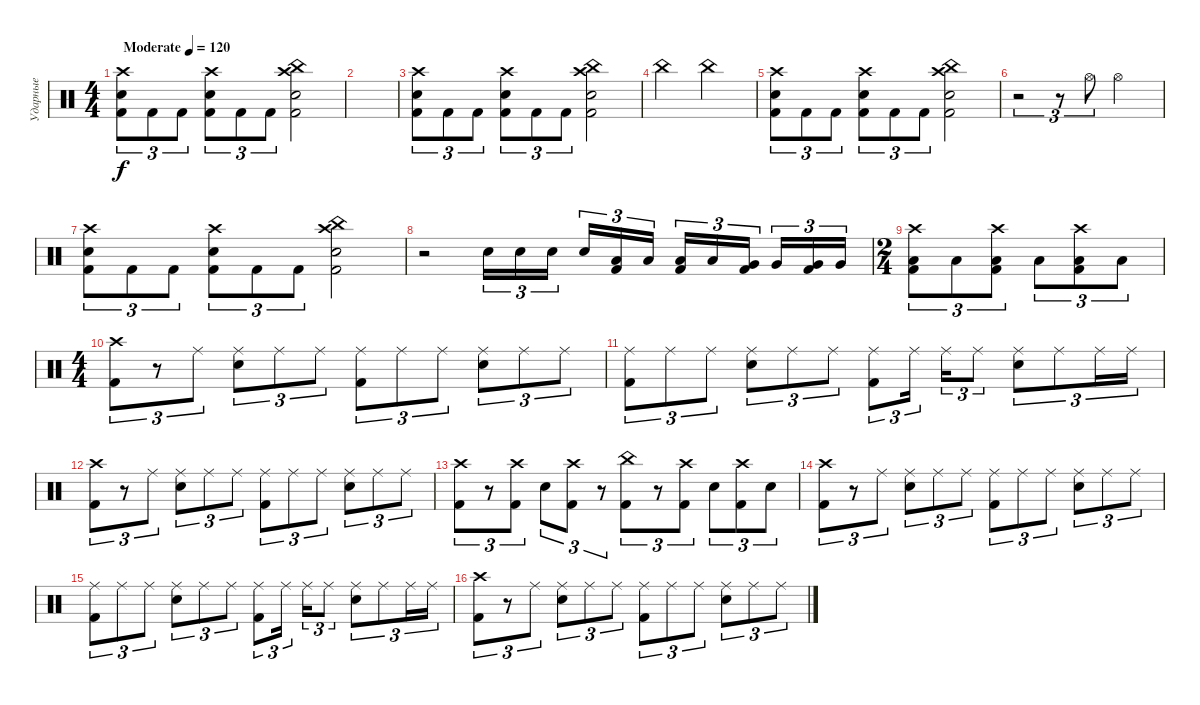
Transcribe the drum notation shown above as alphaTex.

\track ("Ударные" "Ударные") {instrument percussion}
\staff {score}
\articulation defaults
\ts (4 4)
\tempo (120 "Moderate")
\clef neutral
\ks c
("Crash high (hit)" "Snare (hit) 2" "Kick (hit) 2").8{tu (3 2) dy f} "Kick (hit) 2".8{tu (3 2)} "Kick (hit) 2".8{tu (3 2)} ("Crash high (hit)" "Snare (hit) 2" "Kick (hit) 2").8{tu (3 2)} "Kick (hit) 2".8{tu (3 2)} "Kick (hit) 2".8{tu (3 2)} ("Crash high (hit)" "China (hit)" "Snare (hit) 2" "Kick (hit) 2").2 |
|
("Crash high (hit)" "Snare (hit) 2" "Kick (hit) 2").8{tu (3 2)} "Kick (hit) 2".8{tu (3 2)} "Kick (hit) 2".8{tu (3 2)} ("Crash high (hit)" "Snare (hit) 2" "Kick (hit) 2").8{tu (3 2)} "Kick (hit) 2".8{tu (3 2)} "Kick (hit) 2".8{tu (3 2)} ("Crash high (hit)" "China (hit)" "Snare (hit) 2" "Kick (hit) 2").2 |
"China (hit)".2 "China (hit)".2 |
("Crash high (hit)" "Snare (hit) 2" "Kick (hit) 2").8{tu (3 2)} "Kick (hit) 2".8{tu (3 2)} "Kick (hit) 2".8{tu (3 2)} ("Crash high (hit)" "Snare (hit) 2" "Kick (hit) 2").8{tu (3 2)} "Kick (hit) 2".8{tu (3 2)} "Kick (hit) 2".8{tu (3 2)} ("Crash high (hit)" "China (hit)" "Snare (hit) 2" "Kick (hit) 2").2 |
r.2{tu (3 2)} r.8{tu (3 2)} "Hi-Hat (open)".8{tu (3 2)} "Hi-Hat (open)".2 |
("Crash high (hit)" "Snare (hit) 2" "Kick (hit) 2").8{tu (3 2)} "Kick (hit) 2".8{tu (3 2)} "Kick (hit) 2".8{tu (3 2)} ("Crash high (hit)" "Snare (hit) 2" "Kick (hit) 2").8{tu (3 2)} "Kick (hit) 2".8{tu (3 2)} "Kick (hit) 2".8{tu (3 2)} ("Crash high (hit)" "China (hit)" "Snare (hit) 2" "Kick (hit) 2").2 |
r.2 "Snare (hit) 2".16{tu (3 2)} "Snare (hit) 2".16{tu (3 2)} "Snare (hit) 2".16{tu (3 2) beam splitsecondary} "Snare (hit) 2".16{tu (3 2)} ("Low Tom (hit)" "Kick (hit) 2").16{tu (3 2)} "Low Tom (hit)".16{tu (3 2)} ("Low Tom (hit)" "Kick (hit) 2").16{tu (3 2)} "Low Tom (hit)".16{tu (3 2)} ("Very Low Tom (hit)" "Kick (hit) 2").16{tu (3 2) beam splitsecondary} "Very Low Tom (hit)".16{tu (3 2)} ("Very Low Tom (hit)" "Kick (hit) 2").16{tu (3 2)} "Very Low Tom (hit)".16{tu (3 2)} |
\ts (2 4)
("Crash high (hit)" "Low Floor Tom (hit)" "Kick (hit) 2").8{tu (3 2)} "Low Floor Tom (hit)".8{tu (3 2)} ("Crash high (hit)" "Low Floor Tom (hit)" "Kick (hit) 2").8{tu (3 2)} "Low Floor Tom (hit)".8{tu (3 2)} ("Crash high (hit)" "Low Floor Tom (hit)" "Kick (hit) 2").8{tu (3 2)} "Low Floor Tom (hit)".8{tu (3 2)} |
\ts (4 4)
("Crash high (hit)" "Kick (hit) 2").8{tu (3 2)} r.8{tu (3 2)} "Ride (middle)".8{tu (3 2)} ("Ride (middle)" "Snare (hit) 2").8{tu (3 2)} "Ride (middle)".8{tu (3 2)} "Ride (middle)".8{tu (3 2)} ("Ride (middle)" "Kick (hit) 2").8{tu (3 2)} "Ride (middle)".8{tu (3 2)} "Ride (middle)".8{tu (3 2)} ("Ride (middle)" "Snare (hit) 2").8{tu (3 2)} "Ride (middle)".8{tu (3 2)} "Ride (middle)".8{tu (3 2)} |
("Ride (middle)" "Kick (hit) 2").8{tu (3 2)} "Ride (middle)".8{tu (3 2)} "Ride (middle)".8{tu (3 2)} ("Ride (middle)" "Snare (hit) 2").8{tu (3 2)} "Ride (middle)".8{tu (3 2)} "Ride (middle)".8{tu (3 2)} ("Ride (middle)" "Kick (hit) 2").8{tu (3 2)} "Ride (middle)".16{tu (3 2) beam splitsecondary} "Ride (middle)".16{tu (3 2)} "Ride (middle)".8{tu (3 2)} ("Ride (middle)" "Snare (hit) 2").8{tu (3 2)} "Ride (middle)".8{tu (3 2)} "Ride (middle)".16{tu (3 2)} "Ride (middle)".16{tu (3 2)} |
("Crash high (hit)" "Kick (hit) 2").8{tu (3 2)} r.8{tu (3 2)} "Ride (middle)".8{tu (3 2)} ("Ride (middle)" "Snare (hit) 2").8{tu (3 2)} "Ride (middle)".8{tu (3 2)} "Ride (middle)".8{tu (3 2)} ("Ride (middle)" "Kick (hit) 2").8{tu (3 2)} "Ride (middle)".8{tu (3 2)} "Ride (middle)".8{tu (3 2)} ("Ride (middle)" "Snare (hit) 2").8{tu (3 2)} "Ride (middle)".8{tu (3 2)} "Ride (middle)".8{tu (3 2)} |
("Crash high (hit)" "Kick (hit) 2").8{tu (3 2)} r.8{tu (3 2)} ("Crash high (hit)" "Kick (hit) 2").8{tu (3 2)} "Snare (hit) 2".8{tu (3 2)} ("Crash high (hit)" "Kick (hit) 2").8{tu (3 2)} r.8{tu (3 2)} ("China (hit)" "Kick (hit) 2").8{tu (3 2)} r.8{tu (3 2)} ("Crash high (hit)" "Kick (hit) 2").8{tu (3 2)} "Snare (hit) 2".8{tu (3 2)} ("Crash high (hit)" "Kick (hit) 2").8{tu (3 2)} "Snare (hit) 2".8{tu (3 2)} |
("Crash high (hit)" "Kick (hit) 2").8{tu (3 2)} r.8{tu (3 2)} "Ride (middle)".8{tu (3 2)} ("Ride (middle)" "Snare (hit) 2").8{tu (3 2)} "Ride (middle)".8{tu (3 2)} "Ride (middle)".8{tu (3 2)} ("Ride (middle)" "Kick (hit) 2").8{tu (3 2)} "Ride (middle)".8{tu (3 2)} "Ride (middle)".8{tu (3 2)} ("Ride (middle)" "Snare (hit) 2").8{tu (3 2)} "Ride (middle)".8{tu (3 2)} "Ride (middle)".8{tu (3 2)} |
("Ride (middle)" "Kick (hit) 2").8{tu (3 2)} "Ride (middle)".8{tu (3 2)} "Ride (middle)".8{tu (3 2)} ("Ride (middle)" "Snare (hit) 2").8{tu (3 2)} "Ride (middle)".8{tu (3 2)} "Ride (middle)".8{tu (3 2)} ("Ride (middle)" "Kick (hit) 2").8{tu (3 2)} "Ride (middle)".16{tu (3 2) beam splitsecondary} "Ride (middle)".16{tu (3 2)} "Ride (middle)".8{tu (3 2)} ("Ride (middle)" "Snare (hit) 2").8{tu (3 2)} "Ride (middle)".8{tu (3 2)} "Ride (middle)".16{tu (3 2)} "Ride (middle)".16{tu (3 2)} |
("Crash high (hit)" "Kick (hit) 2").8{tu (3 2)} r.8{tu (3 2)} "Ride (middle)".8{tu (3 2)} ("Ride (middle)" "Snare (hit) 2").8{tu (3 2)} "Ride (middle)".8{tu (3 2)} "Ride (middle)".8{tu (3 2)} ("Ride (middle)" "Kick (hit) 2").8{tu (3 2)} "Ride (middle)".8{tu (3 2)} "Ride (middle)".8{tu (3 2)} ("Ride (middle)" "Snare (hit) 2").8{tu (3 2)} "Ride (middle)".8{tu (3 2)} "Ride (middle)".8{tu (3 2)}
